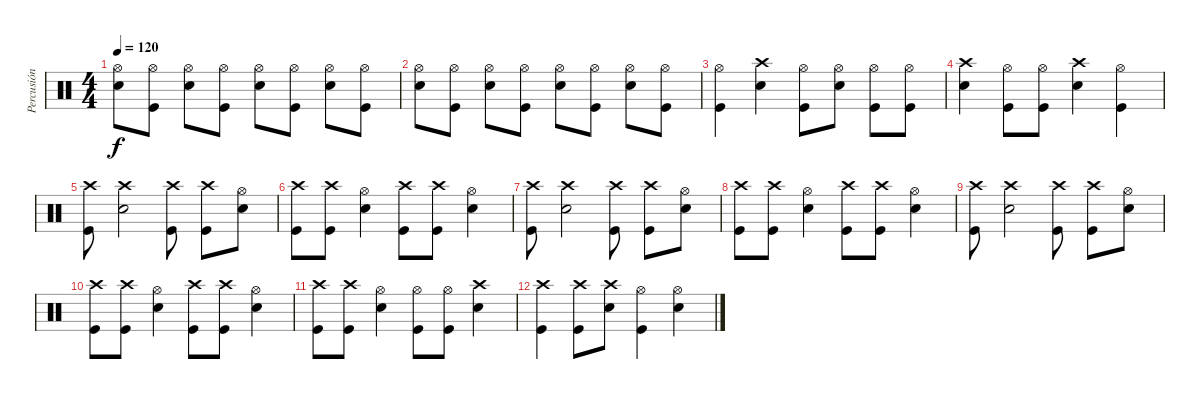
\track ("Percusión" "Percusión") {instrument percussion}
\staff {score}
\articulation defaults
\ts (4 4)
\tempo 120
\clef neutral
\ks c
("Hi-Hat (open)" "Snare (hit) 2").8{dy f} ("Hi-Hat (open)" "Kick (hit)").8 ("Hi-Hat (open)" "Snare (hit) 2").8 ("Hi-Hat (open)" "Kick (hit)").8 ("Hi-Hat (open)" "Snare (hit) 2").8 ("Hi-Hat (open)" "Kick (hit)").8 ("Hi-Hat (open)" "Snare (hit) 2").8 ("Hi-Hat (open)" "Kick (hit)").8 |
("Hi-Hat (open)" "Snare (hit) 2").8 ("Hi-Hat (open)" "Kick (hit)").8 ("Hi-Hat (open)" "Snare (hit) 2").8 ("Hi-Hat (open)" "Kick (hit)").8 ("Hi-Hat (open)" "Snare (hit) 2").8 ("Hi-Hat (open)" "Kick (hit)").8 ("Hi-Hat (open)" "Snare (hit) 2").8 ("Hi-Hat (open)" "Kick (hit)").8 |
("Hi-Hat (open)" "Kick (hit)").4 ("Crash high (hit)" "Snare (hit) 2").4 ("Hi-Hat (open)" "Kick (hit)").8 ("Hi-Hat (open)" "Snare (hit) 2").8 ("Hi-Hat (open)" "Kick (hit)").8 ("Hi-Hat (open)" "Kick (hit)").8 |
("Crash high (hit)" "Snare (hit) 2").4 ("Hi-Hat (open)" "Kick (hit)").8 ("Hi-Hat (open)" "Kick (hit)").8 ("Crash high (hit)" "Snare (hit) 2").4 ("Hi-Hat (open)" "Kick (hit)").4 |
("Crash high (hit)" "Kick (hit)").8 ("Crash high (hit)" "Snare (hit) 2").2 ("Crash high (hit)" "Kick (hit)").8 ("Crash high (hit)" "Kick (hit)").8 ("Hi-Hat (open)" "Snare (hit) 2").8 |
("Crash high (hit)" "Kick (hit)").8 ("Crash high (hit)" "Kick (hit)").8 ("Hi-Hat (open)" "Snare (hit) 2").4 ("Crash high (hit)" "Kick (hit)").8 ("Crash high (hit)" "Kick (hit)").8 ("Hi-Hat (open)" "Snare (hit) 2").4 |
("Crash high (hit)" "Kick (hit)").8 ("Crash high (hit)" "Snare (hit) 2").2 ("Crash high (hit)" "Kick (hit)").8 ("Crash high (hit)" "Kick (hit)").8 ("Hi-Hat (open)" "Snare (hit) 2").8 |
("Crash high (hit)" "Kick (hit)").8 ("Crash high (hit)" "Kick (hit)").8 ("Hi-Hat (open)" "Snare (hit) 2").4 ("Crash high (hit)" "Kick (hit)").8 ("Crash high (hit)" "Kick (hit)").8 ("Hi-Hat (open)" "Snare (hit) 2").4 |
("Crash high (hit)" "Kick (hit)").8 ("Crash high (hit)" "Snare (hit) 2").2 ("Crash high (hit)" "Kick (hit)").8 ("Crash high (hit)" "Kick (hit)").8 ("Hi-Hat (open)" "Snare (hit) 2").8 |
("Crash high (hit)" "Kick (hit)").8 ("Crash high (hit)" "Kick (hit)").8 ("Hi-Hat (open)" "Snare (hit) 2").4 ("Crash high (hit)" "Kick (hit)").8 ("Crash high (hit)" "Kick (hit)").8 ("Hi-Hat (open)" "Snare (hit) 2").4 |
("Crash high (hit)" "Kick (hit)").8 ("Crash high (hit)" "Kick (hit)").8 ("Hi-Hat (open)" "Snare (hit) 2").4 ("Hi-Hat (open)" "Kick (hit)").8 ("Hi-Hat (open)" "Kick (hit)").8 ("Crash high (hit)" "Snare (hit) 2").4 |
("Crash high (hit)" "Kick (hit)").4 ("Crash high (hit)" "Kick (hit)").8 ("Crash high (hit)" "Snare (hit) 2").8 ("Hi-Hat (open)" "Kick (hit)").4 ("Hi-Hat (open)" "Snare (hit) 2").4
